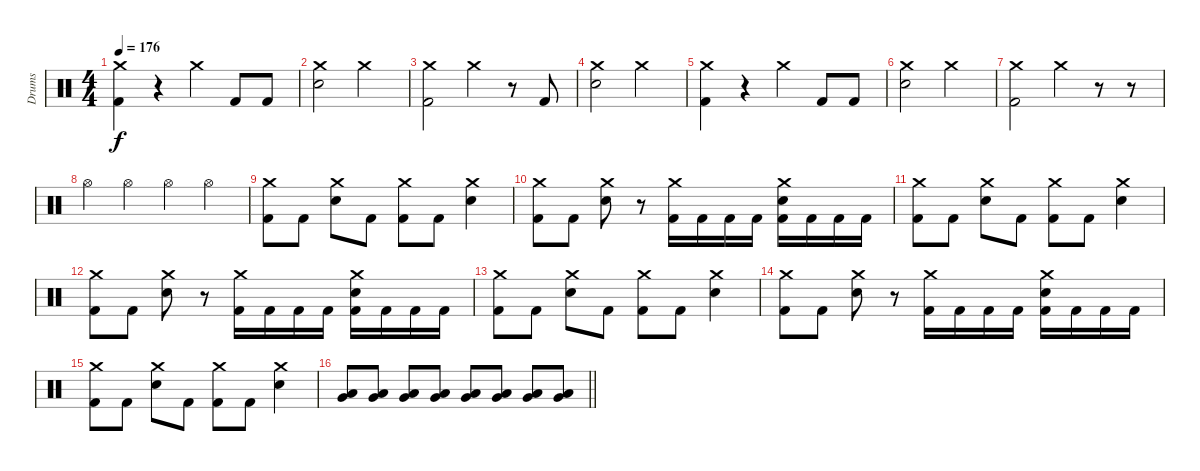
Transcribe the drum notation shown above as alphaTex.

\track ("Drums" "Drums") {instrument percussion}
\staff {score}
\articulation defaults
\ts (4 4)
\tempo 176
\clef neutral
\ks c
("Crash medium (hit)" "Kick (hit) 2").4{dy f} r.4 "Crash medium (hit)".4 "Kick (hit) 2".8 "Kick (hit) 2".8 |
("Crash medium (hit)" "Electric Snare (hit)").2 "Crash medium (hit)".2 |
("Crash medium (hit)" "Kick (hit) 2").2 "Crash medium (hit)".4 r.8 "Kick (hit) 2".8 |
("Crash medium (hit)" "Electric Snare (hit)").2 "Crash medium (hit)".2 |
("Crash medium (hit)" "Kick (hit) 2").4 r.4 "Crash medium (hit)".4 "Kick (hit) 2".8 "Kick (hit) 2".8 |
("Crash medium (hit)" "Electric Snare (hit)").2 "Crash medium (hit)".2 |
("Crash medium (hit)" "Kick (hit) 2").2 "Crash medium (hit)".4 r.8 r.8 |
"Hi-Hat (open)".4 "Hi-Hat (open)".4 "Hi-Hat (open)".4 "Hi-Hat (open)".4 |
("Crash medium (hit)" "Kick (hit) 2").8 "Kick (hit) 2".8 ("Crash medium (hit)" "Electric Snare (hit)").8 "Kick (hit) 2".8 ("Crash medium (hit)" "Kick (hit) 2").8 "Kick (hit) 2".8 ("Crash medium (hit)" "Electric Snare (hit)").4 |
("Crash medium (hit)" "Kick (hit) 2").8 "Kick (hit) 2".8 ("Crash medium (hit)" "Electric Snare (hit)").8 r.8 ("Crash medium (hit)" "Kick (hit) 2").16 "Kick (hit) 2".16 "Kick (hit) 2".16 "Kick (hit) 2".16 ("Crash medium (hit)" "Electric Snare (hit)" "Kick (hit) 2").16 "Kick (hit) 2".16 "Kick (hit) 2".16 "Kick (hit) 2".16 |
("Crash medium (hit)" "Kick (hit) 2").8 "Kick (hit) 2".8 ("Crash medium (hit)" "Electric Snare (hit)").8 "Kick (hit) 2".8 ("Crash medium (hit)" "Kick (hit) 2").8 "Kick (hit) 2".8 ("Crash medium (hit)" "Electric Snare (hit)").4 |
("Crash medium (hit)" "Kick (hit) 2").8 "Kick (hit) 2".8 ("Crash medium (hit)" "Electric Snare (hit)").8 r.8 ("Crash medium (hit)" "Kick (hit) 2").16 "Kick (hit) 2".16 "Kick (hit) 2".16 "Kick (hit) 2".16 ("Crash medium (hit)" "Electric Snare (hit)" "Kick (hit) 2").16 "Kick (hit) 2".16 "Kick (hit) 2".16 "Kick (hit) 2".16 |
("Crash medium (hit)" "Kick (hit) 2").8 "Kick (hit) 2".8 ("Crash medium (hit)" "Electric Snare (hit)").8 "Kick (hit) 2".8 ("Crash medium (hit)" "Kick (hit) 2").8 "Kick (hit) 2".8 ("Crash medium (hit)" "Electric Snare (hit)").4 |
("Crash medium (hit)" "Kick (hit) 2").8 "Kick (hit) 2".8 ("Crash medium (hit)" "Electric Snare (hit)").8 r.8 ("Crash medium (hit)" "Kick (hit) 2").16 "Kick (hit) 2".16 "Kick (hit) 2".16 "Kick (hit) 2".16 ("Crash medium (hit)" "Electric Snare (hit)" "Kick (hit) 2").16 "Kick (hit) 2".16 "Kick (hit) 2".16 "Kick (hit) 2".16 |
("Crash medium (hit)" "Kick (hit) 2").8 "Kick (hit) 2".8 ("Crash medium (hit)" "Electric Snare (hit)").8 "Kick (hit) 2".8 ("Crash medium (hit)" "Kick (hit) 2").8 "Kick (hit) 2".8 ("Crash medium (hit)" "Electric Snare (hit)").4 |
\barLineRight lightlight
("Very Low Tom (hit)" "Low Tom (hit)").8 ("Very Low Tom (hit)" "Low Tom (hit)").8 ("Very Low Tom (hit)" "Low Tom (hit)").8 ("Very Low Tom (hit)" "Low Tom (hit)").8 ("Very Low Tom (hit)" "Low Tom (hit)").8 ("Very Low Tom (hit)" "Low Tom (hit)").8 ("Very Low Tom (hit)" "Low Tom (hit)").8 ("Very Low Tom (hit)" "Low Tom (hit)").8
